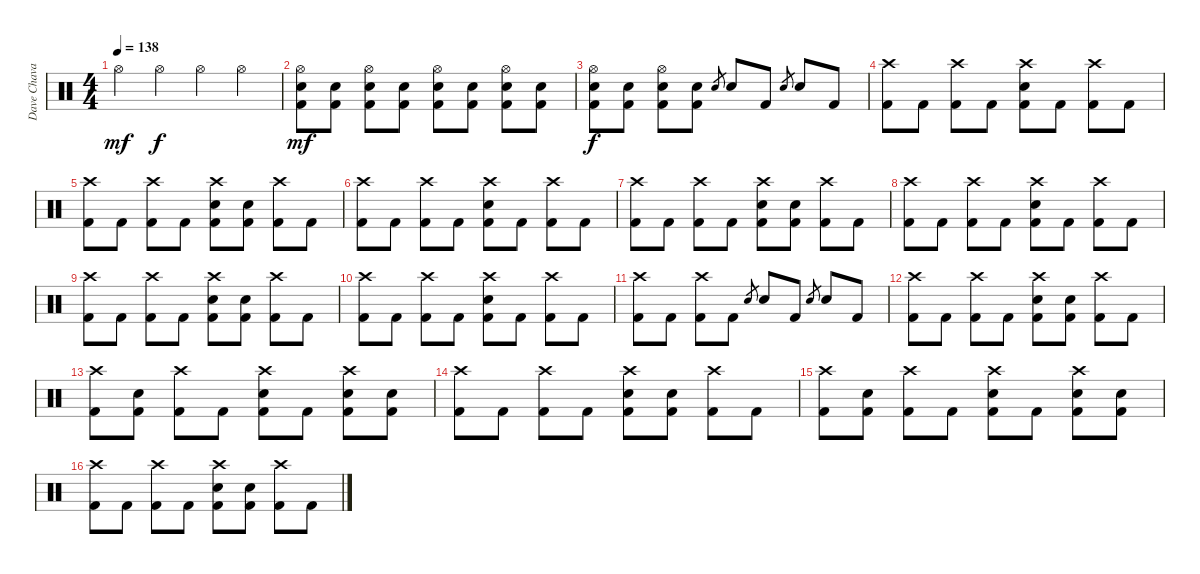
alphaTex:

\track ("Dave Chavarri - Drums" "Dave Chava") {instrument percussion}
\staff {score}
\articulation defaults
\ts (4 4)
\tempo 138
\clef neutral
\ks c "Hi-Hat (open)".4{dy mf} "Hi-Hat (open)".4{dy f} "Hi-Hat (open)".4 "Hi-Hat (open)".4
|
("Hi-Hat (open)" "Electric Snare (hit)" "Kick (hit) 2").8{dy mf} ("Electric Snare (hit)" "Kick (hit) 2").8 ("Hi-Hat (open)" "Electric Snare (hit)" "Kick (hit) 2").8 ("Electric Snare (hit)" "Kick (hit) 2").8 ("Hi-Hat (open)" "Electric Snare (hit)" "Kick (hit) 2").8 ("Electric Snare (hit)" "Kick (hit) 2").8 ("Hi-Hat (open)" "Electric Snare (hit)" "Kick (hit) 2").8 ("Electric Snare (hit)" "Kick (hit) 2").8 |
("Hi-Hat (open)" "Electric Snare (hit)" "Kick (hit) 2").8{dy f} ("Electric Snare (hit)" "Kick (hit) 2").8 ("Hi-Hat (open)" "Electric Snare (hit)" "Kick (hit) 2").8 ("Electric Snare (hit)" "Kick (hit) 2").8 "Electric Snare (hit)".8{gr} "Electric Snare (hit)".8 "Kick (hit) 2".8 "Electric Snare (hit)".8{gr} "Electric Snare (hit)".8 "Kick (hit) 2".8 |
("Crash high (hit)" "Kick (hit) 2").8 "Kick (hit) 2".8 ("Crash high (hit)" "Kick (hit) 2").8 "Kick (hit) 2".8 ("Crash high (hit)" "Electric Snare (hit)" "Kick (hit) 2").8 "Kick (hit) 2".8 ("Crash high (hit)" "Kick (hit) 2").8 "Kick (hit) 2".8 |
("Crash high (hit)" "Kick (hit) 2").8 "Kick (hit) 2".8 ("Crash high (hit)" "Kick (hit) 2").8 "Kick (hit) 2".8 ("Crash high (hit)" "Electric Snare (hit)" "Kick (hit) 2").8 ("Electric Snare (hit)" "Kick (hit) 2").8 ("Crash high (hit)" "Kick (hit) 2").8 "Kick (hit) 2".8 |
("Crash high (hit)" "Kick (hit) 2").8 "Kick (hit) 2".8 ("Crash high (hit)" "Kick (hit) 2").8 "Kick (hit) 2".8 ("Crash high (hit)" "Electric Snare (hit)" "Kick (hit) 2").8 "Kick (hit) 2".8 ("Crash high (hit)" "Kick (hit) 2").8 "Kick (hit) 2".8 |
("Crash high (hit)" "Kick (hit) 2").8 "Kick (hit) 2".8 ("Crash high (hit)" "Kick (hit) 2").8 "Kick (hit) 2".8 ("Crash high (hit)" "Electric Snare (hit)" "Kick (hit) 2").8 ("Electric Snare (hit)" "Kick (hit) 2").8 ("Crash high (hit)" "Kick (hit) 2").8 "Kick (hit) 2".8 |
("Crash high (hit)" "Kick (hit) 2").8 "Kick (hit) 2".8 ("Crash high (hit)" "Kick (hit) 2").8 "Kick (hit) 2".8 ("Crash high (hit)" "Electric Snare (hit)" "Kick (hit) 2").8 "Kick (hit) 2".8 ("Crash high (hit)" "Kick (hit) 2").8 "Kick (hit) 2".8 |
("Crash high (hit)" "Kick (hit) 2").8 "Kick (hit) 2".8 ("Crash high (hit)" "Kick (hit) 2").8 "Kick (hit) 2".8 ("Crash high (hit)" "Electric Snare (hit)" "Kick (hit) 2").8 ("Electric Snare (hit)" "Kick (hit) 2").8 ("Crash high (hit)" "Kick (hit) 2").8 "Kick (hit) 2".8 |
("Crash high (hit)" "Kick (hit) 2").8 "Kick (hit) 2".8 ("Crash high (hit)" "Kick (hit) 2").8 "Kick (hit) 2".8 ("Crash high (hit)" "Electric Snare (hit)" "Kick (hit) 2").8 "Kick (hit) 2".8 ("Crash high (hit)" "Kick (hit) 2").8 "Kick (hit) 2".8 |
("Crash high (hit)" "Kick (hit) 2").8 "Kick (hit) 2".8 ("Crash high (hit)" "Kick (hit) 2").8 "Kick (hit) 2".8 "Electric Snare (hit)".8{gr} "Electric Snare (hit)".8 "Kick (hit) 2".8 "Electric Snare (hit)".8{gr} "Electric Snare (hit)".8 "Kick (hit) 2".8 |
("Crash high (hit)" "Kick (hit) 2").8 "Kick (hit) 2".8 ("Crash high (hit)" "Kick (hit) 2").8 "Kick (hit) 2".8 ("Crash high (hit)" "Electric Snare (hit)" "Kick (hit) 2").8 ("Electric Snare (hit)" "Kick (hit) 2").8 ("Crash high (hit)" "Kick (hit) 2").8 "Kick (hit) 2".8 |
("Crash high (hit)" "Kick (hit) 2").8 ("Electric Snare (hit)" "Kick (hit) 2").8 ("Crash high (hit)" "Kick (hit) 2").8 "Kick (hit) 2".8 ("Crash high (hit)" "Electric Snare (hit)" "Kick (hit) 2").8 "Kick (hit) 2".8 ("Crash high (hit)" "Electric Snare (hit)" "Kick (hit) 2").8 ("Electric Snare (hit)" "Kick (hit) 2").8 |
("Crash high (hit)" "Kick (hit) 2").8 "Kick (hit) 2".8 ("Crash high (hit)" "Kick (hit) 2").8 "Kick (hit) 2".8 ("Crash high (hit)" "Electric Snare (hit)" "Kick (hit) 2").8 ("Electric Snare (hit)" "Kick (hit) 2").8 ("Crash high (hit)" "Kick (hit) 2").8 "Kick (hit) 2".8 |
("Crash high (hit)" "Kick (hit) 2").8 ("Electric Snare (hit)" "Kick (hit) 2").8 ("Crash high (hit)" "Kick (hit) 2").8 "Kick (hit) 2".8 ("Crash high (hit)" "Electric Snare (hit)" "Kick (hit) 2").8 "Kick (hit) 2".8 ("Crash high (hit)" "Electric Snare (hit)" "Kick (hit) 2").8 ("Electric Snare (hit)" "Kick (hit) 2").8 |
("Crash high (hit)" "Kick (hit) 2").8 "Kick (hit) 2".8 ("Crash high (hit)" "Kick (hit) 2").8 "Kick (hit) 2".8 ("Crash high (hit)" "Electric Snare (hit)" "Kick (hit) 2").8 ("Electric Snare (hit)" "Kick (hit) 2").8 ("Crash high (hit)" "Kick (hit) 2").8 "Kick (hit) 2".8
